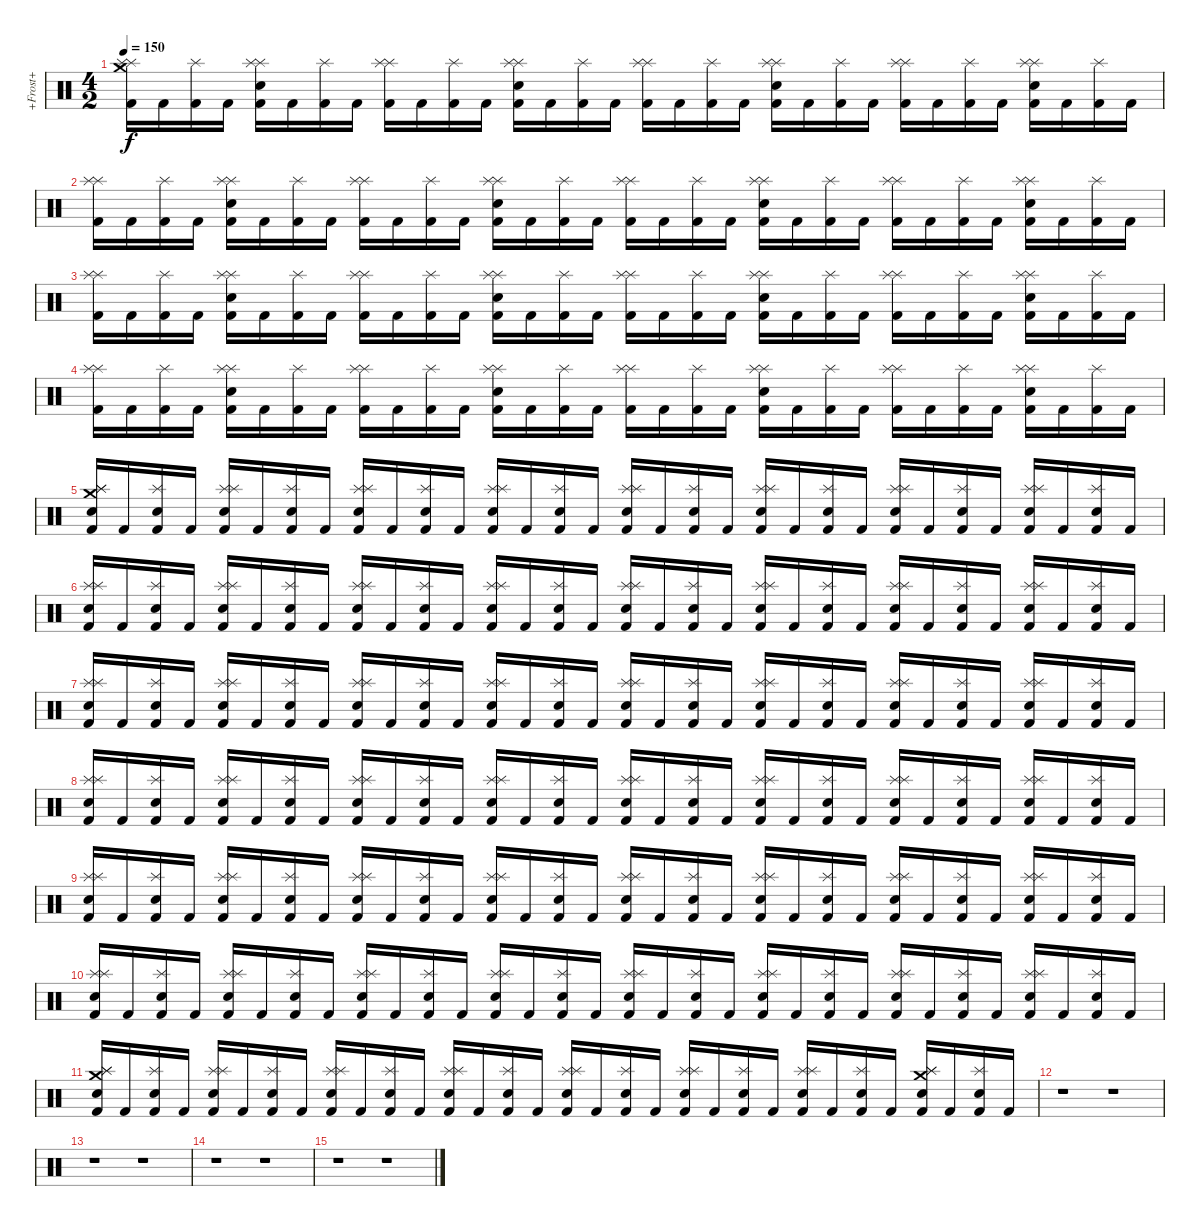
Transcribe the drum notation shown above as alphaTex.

\track ("+Frost+" "+Frost+") {instrument percussion}
\staff {score}
\articulation defaults
\ts (4 2)
\tempo 150
\clef neutral
\ks c
("Kick (hit) 2" "Splash (hit)" "Splash (hit)" "Crash medium (hit)").16{dy f} "Kick (hit) 2".16 ("Kick (hit) 2" "Splash (hit)").16 "Kick (hit) 2".16 ("Kick (hit) 2" "Splash (hit)" "Splash (hit)" "Electric Snare (hit)").16 "Kick (hit) 2".16 ("Kick (hit) 2" "Splash (hit)").16 "Kick (hit) 2".16 ("Kick (hit) 2" "Splash (hit)" "Splash (hit)").16 "Kick (hit) 2".16 ("Kick (hit) 2" "Splash (hit)").16 "Kick (hit) 2".16 ("Kick (hit) 2" "Splash (hit)" "Splash (hit)" "Electric Snare (hit)").16 "Kick (hit) 2".16 ("Kick (hit) 2" "Splash (hit)").16 "Kick (hit) 2".16 ("Kick (hit) 2" "Splash (hit)" "Splash (hit)").16 "Kick (hit) 2".16 ("Kick (hit) 2" "Splash (hit)").16 "Kick (hit) 2".16 ("Kick (hit) 2" "Splash (hit)" "Splash (hit)" "Electric Snare (hit)").16 "Kick (hit) 2".16 ("Kick (hit) 2" "Splash (hit)").16 "Kick (hit) 2".16 ("Kick (hit) 2" "Splash (hit)" "Splash (hit)").16 "Kick (hit) 2".16 ("Kick (hit) 2" "Splash (hit)").16 "Kick (hit) 2".16 ("Kick (hit) 2" "Splash (hit)" "Splash (hit)" "Electric Snare (hit)").16 "Kick (hit) 2".16 ("Kick (hit) 2" "Splash (hit)").16 "Kick (hit) 2".16 |
("Kick (hit) 2" "Splash (hit)" "Splash (hit)").16 "Kick (hit) 2".16 ("Kick (hit) 2" "Splash (hit)").16 "Kick (hit) 2".16 ("Kick (hit) 2" "Splash (hit)" "Splash (hit)" "Electric Snare (hit)").16 "Kick (hit) 2".16 ("Kick (hit) 2" "Splash (hit)").16 "Kick (hit) 2".16 ("Kick (hit) 2" "Splash (hit)" "Splash (hit)").16 "Kick (hit) 2".16 ("Kick (hit) 2" "Splash (hit)").16 "Kick (hit) 2".16 ("Kick (hit) 2" "Splash (hit)" "Splash (hit)" "Electric Snare (hit)").16 "Kick (hit) 2".16 ("Kick (hit) 2" "Splash (hit)").16 "Kick (hit) 2".16 ("Kick (hit) 2" "Splash (hit)" "Splash (hit)").16 "Kick (hit) 2".16 ("Kick (hit) 2" "Splash (hit)").16 "Kick (hit) 2".16 ("Kick (hit) 2" "Splash (hit)" "Splash (hit)" "Electric Snare (hit)").16 "Kick (hit) 2".16 ("Kick (hit) 2" "Splash (hit)").16 "Kick (hit) 2".16 ("Kick (hit) 2" "Splash (hit)" "Splash (hit)").16 "Kick (hit) 2".16 ("Kick (hit) 2" "Splash (hit)").16 "Kick (hit) 2".16 ("Kick (hit) 2" "Splash (hit)" "Splash (hit)" "Electric Snare (hit)").16 "Kick (hit) 2".16 ("Kick (hit) 2" "Splash (hit)").16 "Kick (hit) 2".16 |
("Kick (hit) 2" "Splash (hit)" "Splash (hit)").16 "Kick (hit) 2".16 ("Kick (hit) 2" "Splash (hit)").16 "Kick (hit) 2".16 ("Kick (hit) 2" "Splash (hit)" "Splash (hit)" "Electric Snare (hit)").16 "Kick (hit) 2".16 ("Kick (hit) 2" "Splash (hit)").16 "Kick (hit) 2".16 ("Kick (hit) 2" "Splash (hit)" "Splash (hit)").16 "Kick (hit) 2".16 ("Kick (hit) 2" "Splash (hit)").16 "Kick (hit) 2".16 ("Kick (hit) 2" "Splash (hit)" "Splash (hit)" "Electric Snare (hit)").16 "Kick (hit) 2".16 ("Kick (hit) 2" "Splash (hit)").16 "Kick (hit) 2".16 ("Kick (hit) 2" "Splash (hit)" "Splash (hit)").16 "Kick (hit) 2".16 ("Kick (hit) 2" "Splash (hit)").16 "Kick (hit) 2".16 ("Kick (hit) 2" "Splash (hit)" "Splash (hit)" "Electric Snare (hit)").16 "Kick (hit) 2".16 ("Kick (hit) 2" "Splash (hit)").16 "Kick (hit) 2".16 ("Kick (hit) 2" "Splash (hit)" "Splash (hit)").16 "Kick (hit) 2".16 ("Kick (hit) 2" "Splash (hit)").16 "Kick (hit) 2".16 ("Kick (hit) 2" "Splash (hit)" "Splash (hit)" "Electric Snare (hit)").16 "Kick (hit) 2".16 ("Kick (hit) 2" "Splash (hit)").16 "Kick (hit) 2".16 |
("Kick (hit) 2" "Splash (hit)" "Splash (hit)").16 "Kick (hit) 2".16 ("Kick (hit) 2" "Splash (hit)").16 "Kick (hit) 2".16 ("Kick (hit) 2" "Splash (hit)" "Splash (hit)" "Electric Snare (hit)").16 "Kick (hit) 2".16 ("Kick (hit) 2" "Splash (hit)").16 "Kick (hit) 2".16 ("Kick (hit) 2" "Splash (hit)" "Splash (hit)").16 "Kick (hit) 2".16 ("Kick (hit) 2" "Splash (hit)").16 "Kick (hit) 2".16 ("Kick (hit) 2" "Splash (hit)" "Splash (hit)" "Electric Snare (hit)").16 "Kick (hit) 2".16 ("Kick (hit) 2" "Splash (hit)").16 "Kick (hit) 2".16 ("Kick (hit) 2" "Splash (hit)" "Splash (hit)").16 "Kick (hit) 2".16 ("Kick (hit) 2" "Splash (hit)").16 "Kick (hit) 2".16 ("Kick (hit) 2" "Splash (hit)" "Splash (hit)" "Electric Snare (hit)").16 "Kick (hit) 2".16 ("Kick (hit) 2" "Splash (hit)").16 "Kick (hit) 2".16 ("Kick (hit) 2" "Splash (hit)" "Splash (hit)").16 "Kick (hit) 2".16 ("Kick (hit) 2" "Splash (hit)").16 "Kick (hit) 2".16 ("Kick (hit) 2" "Splash (hit)" "Splash (hit)" "Electric Snare (hit)").16 "Kick (hit) 2".16 ("Kick (hit) 2" "Splash (hit)").16 "Kick (hit) 2".16 |
("Kick (hit) 2" "Splash (hit)" "Splash (hit)" "Electric Snare (hit)" "Crash medium (hit)").16 "Kick (hit) 2".16 ("Kick (hit) 2" "Splash (hit)" "Electric Snare (hit)").16 "Kick (hit) 2".16 ("Kick (hit) 2" "Splash (hit)" "Splash (hit)" "Electric Snare (hit)").16 "Kick (hit) 2".16 ("Kick (hit) 2" "Splash (hit)" "Electric Snare (hit)").16 "Kick (hit) 2".16 ("Kick (hit) 2" "Splash (hit)" "Splash (hit)" "Electric Snare (hit)").16 "Kick (hit) 2".16 ("Kick (hit) 2" "Splash (hit)" "Electric Snare (hit)").16 "Kick (hit) 2".16 ("Kick (hit) 2" "Splash (hit)" "Splash (hit)" "Electric Snare (hit)").16 "Kick (hit) 2".16 ("Kick (hit) 2" "Splash (hit)" "Electric Snare (hit)").16 "Kick (hit) 2".16 ("Kick (hit) 2" "Splash (hit)" "Splash (hit)" "Electric Snare (hit)").16 "Kick (hit) 2".16 ("Kick (hit) 2" "Splash (hit)" "Electric Snare (hit)").16 "Kick (hit) 2".16 ("Kick (hit) 2" "Splash (hit)" "Splash (hit)" "Electric Snare (hit)").16 "Kick (hit) 2".16 ("Kick (hit) 2" "Splash (hit)" "Electric Snare (hit)").16 "Kick (hit) 2".16 ("Kick (hit) 2" "Splash (hit)" "Splash (hit)" "Electric Snare (hit)").16 "Kick (hit) 2".16 ("Kick (hit) 2" "Splash (hit)" "Electric Snare (hit)").16 "Kick (hit) 2".16 ("Kick (hit) 2" "Splash (hit)" "Splash (hit)" "Electric Snare (hit)").16 "Kick (hit) 2".16 ("Kick (hit) 2" "Splash (hit)" "Electric Snare (hit)").16 "Kick (hit) 2".16 |
("Kick (hit) 2" "Splash (hit)" "Splash (hit)" "Electric Snare (hit)").16 "Kick (hit) 2".16 ("Kick (hit) 2" "Splash (hit)" "Electric Snare (hit)").16 "Kick (hit) 2".16 ("Kick (hit) 2" "Splash (hit)" "Splash (hit)" "Electric Snare (hit)").16 "Kick (hit) 2".16 ("Kick (hit) 2" "Splash (hit)" "Electric Snare (hit)").16 "Kick (hit) 2".16 ("Kick (hit) 2" "Splash (hit)" "Splash (hit)" "Electric Snare (hit)").16 "Kick (hit) 2".16 ("Kick (hit) 2" "Splash (hit)" "Electric Snare (hit)").16 "Kick (hit) 2".16 ("Kick (hit) 2" "Splash (hit)" "Splash (hit)" "Electric Snare (hit)").16 "Kick (hit) 2".16 ("Kick (hit) 2" "Splash (hit)" "Electric Snare (hit)").16 "Kick (hit) 2".16 ("Kick (hit) 2" "Splash (hit)" "Splash (hit)" "Electric Snare (hit)").16 "Kick (hit) 2".16 ("Kick (hit) 2" "Splash (hit)" "Electric Snare (hit)").16 "Kick (hit) 2".16 ("Kick (hit) 2" "Splash (hit)" "Splash (hit)" "Electric Snare (hit)").16 "Kick (hit) 2".16 ("Kick (hit) 2" "Splash (hit)" "Electric Snare (hit)").16 "Kick (hit) 2".16 ("Kick (hit) 2" "Splash (hit)" "Splash (hit)" "Electric Snare (hit)").16 "Kick (hit) 2".16 ("Kick (hit) 2" "Splash (hit)" "Electric Snare (hit)").16 "Kick (hit) 2".16 ("Kick (hit) 2" "Splash (hit)" "Splash (hit)" "Electric Snare (hit)").16 "Kick (hit) 2".16 ("Kick (hit) 2" "Splash (hit)" "Electric Snare (hit)").16 "Kick (hit) 2".16 |
("Kick (hit) 2" "Splash (hit)" "Splash (hit)" "Electric Snare (hit)").16 "Kick (hit) 2".16 ("Kick (hit) 2" "Splash (hit)" "Electric Snare (hit)").16 "Kick (hit) 2".16 ("Kick (hit) 2" "Splash (hit)" "Splash (hit)" "Electric Snare (hit)").16 "Kick (hit) 2".16 ("Kick (hit) 2" "Splash (hit)" "Electric Snare (hit)").16 "Kick (hit) 2".16 ("Kick (hit) 2" "Splash (hit)" "Splash (hit)" "Electric Snare (hit)").16 "Kick (hit) 2".16 ("Kick (hit) 2" "Splash (hit)" "Electric Snare (hit)").16 "Kick (hit) 2".16 ("Kick (hit) 2" "Splash (hit)" "Splash (hit)" "Electric Snare (hit)").16 "Kick (hit) 2".16 ("Kick (hit) 2" "Splash (hit)" "Electric Snare (hit)").16 "Kick (hit) 2".16 ("Kick (hit) 2" "Splash (hit)" "Splash (hit)" "Electric Snare (hit)").16 "Kick (hit) 2".16 ("Kick (hit) 2" "Splash (hit)" "Electric Snare (hit)").16 "Kick (hit) 2".16 ("Kick (hit) 2" "Splash (hit)" "Splash (hit)" "Electric Snare (hit)").16 "Kick (hit) 2".16 ("Kick (hit) 2" "Splash (hit)" "Electric Snare (hit)").16 "Kick (hit) 2".16 ("Kick (hit) 2" "Splash (hit)" "Splash (hit)" "Electric Snare (hit)").16 "Kick (hit) 2".16 ("Kick (hit) 2" "Splash (hit)" "Electric Snare (hit)").16 "Kick (hit) 2".16 ("Kick (hit) 2" "Splash (hit)" "Splash (hit)" "Electric Snare (hit)").16 "Kick (hit) 2".16 ("Kick (hit) 2" "Splash (hit)" "Electric Snare (hit)").16 "Kick (hit) 2".16 |
("Kick (hit) 2" "Splash (hit)" "Splash (hit)" "Electric Snare (hit)").16 "Kick (hit) 2".16 ("Kick (hit) 2" "Splash (hit)" "Electric Snare (hit)").16 "Kick (hit) 2".16 ("Kick (hit) 2" "Splash (hit)" "Splash (hit)" "Electric Snare (hit)").16 "Kick (hit) 2".16 ("Kick (hit) 2" "Splash (hit)" "Electric Snare (hit)").16 "Kick (hit) 2".16 ("Kick (hit) 2" "Splash (hit)" "Splash (hit)" "Electric Snare (hit)").16 "Kick (hit) 2".16 ("Kick (hit) 2" "Splash (hit)" "Electric Snare (hit)").16 "Kick (hit) 2".16 ("Kick (hit) 2" "Splash (hit)" "Splash (hit)" "Electric Snare (hit)").16 "Kick (hit) 2".16 ("Kick (hit) 2" "Splash (hit)" "Electric Snare (hit)").16 "Kick (hit) 2".16 ("Kick (hit) 2" "Splash (hit)" "Splash (hit)" "Electric Snare (hit)").16 "Kick (hit) 2".16 ("Kick (hit) 2" "Splash (hit)" "Electric Snare (hit)").16 "Kick (hit) 2".16 ("Kick (hit) 2" "Splash (hit)" "Splash (hit)" "Electric Snare (hit)").16 "Kick (hit) 2".16 ("Kick (hit) 2" "Splash (hit)" "Electric Snare (hit)").16 "Kick (hit) 2".16 ("Kick (hit) 2" "Splash (hit)" "Splash (hit)" "Electric Snare (hit)").16 "Kick (hit) 2".16 ("Kick (hit) 2" "Splash (hit)" "Electric Snare (hit)").16 "Kick (hit) 2".16 ("Kick (hit) 2" "Splash (hit)" "Splash (hit)" "Electric Snare (hit)").16 "Kick (hit) 2".16 ("Kick (hit) 2" "Splash (hit)" "Electric Snare (hit)").16 "Kick (hit) 2".16 |
("Kick (hit) 2" "Splash (hit)" "Splash (hit)" "Electric Snare (hit)").16 "Kick (hit) 2".16 ("Kick (hit) 2" "Splash (hit)" "Electric Snare (hit)").16 "Kick (hit) 2".16 ("Kick (hit) 2" "Splash (hit)" "Splash (hit)" "Electric Snare (hit)").16 "Kick (hit) 2".16 ("Kick (hit) 2" "Splash (hit)" "Electric Snare (hit)").16 "Kick (hit) 2".16 ("Kick (hit) 2" "Splash (hit)" "Splash (hit)" "Electric Snare (hit)").16 "Kick (hit) 2".16 ("Kick (hit) 2" "Splash (hit)" "Electric Snare (hit)").16 "Kick (hit) 2".16 ("Kick (hit) 2" "Splash (hit)" "Splash (hit)" "Electric Snare (hit)").16 "Kick (hit) 2".16 ("Kick (hit) 2" "Splash (hit)" "Electric Snare (hit)").16 "Kick (hit) 2".16 ("Kick (hit) 2" "Splash (hit)" "Splash (hit)" "Electric Snare (hit)").16 "Kick (hit) 2".16 ("Kick (hit) 2" "Splash (hit)" "Electric Snare (hit)").16 "Kick (hit) 2".16 ("Kick (hit) 2" "Splash (hit)" "Splash (hit)" "Electric Snare (hit)").16 "Kick (hit) 2".16 ("Kick (hit) 2" "Splash (hit)" "Electric Snare (hit)").16 "Kick (hit) 2".16 ("Kick (hit) 2" "Splash (hit)" "Splash (hit)" "Electric Snare (hit)").16 "Kick (hit) 2".16 ("Kick (hit) 2" "Splash (hit)" "Electric Snare (hit)").16 "Kick (hit) 2".16 ("Kick (hit) 2" "Splash (hit)" "Splash (hit)" "Electric Snare (hit)").16 "Kick (hit) 2".16 ("Kick (hit) 2" "Splash (hit)" "Electric Snare (hit)").16 "Kick (hit) 2".16 |
("Kick (hit) 2" "Splash (hit)" "Splash (hit)" "Electric Snare (hit)").16 "Kick (hit) 2".16 ("Kick (hit) 2" "Splash (hit)" "Electric Snare (hit)").16 "Kick (hit) 2".16 ("Kick (hit) 2" "Splash (hit)" "Splash (hit)" "Electric Snare (hit)").16 "Kick (hit) 2".16 ("Kick (hit) 2" "Splash (hit)" "Electric Snare (hit)").16 "Kick (hit) 2".16 ("Kick (hit) 2" "Splash (hit)" "Splash (hit)" "Electric Snare (hit)").16 "Kick (hit) 2".16 ("Kick (hit) 2" "Splash (hit)" "Electric Snare (hit)").16 "Kick (hit) 2".16 ("Kick (hit) 2" "Splash (hit)" "Splash (hit)" "Electric Snare (hit)").16 "Kick (hit) 2".16 ("Kick (hit) 2" "Splash (hit)" "Electric Snare (hit)").16 "Kick (hit) 2".16 ("Kick (hit) 2" "Splash (hit)" "Splash (hit)" "Electric Snare (hit)").16 "Kick (hit) 2".16 ("Kick (hit) 2" "Splash (hit)" "Electric Snare (hit)").16 "Kick (hit) 2".16 ("Kick (hit) 2" "Splash (hit)" "Splash (hit)" "Electric Snare (hit)").16 "Kick (hit) 2".16 ("Kick (hit) 2" "Splash (hit)" "Electric Snare (hit)").16 "Kick (hit) 2".16 ("Kick (hit) 2" "Splash (hit)" "Splash (hit)" "Electric Snare (hit)").16 "Kick (hit) 2".16 ("Kick (hit) 2" "Splash (hit)" "Electric Snare (hit)").16 "Kick (hit) 2".16 ("Kick (hit) 2" "Splash (hit)" "Splash (hit)" "Electric Snare (hit)").16 "Kick (hit) 2".16 ("Kick (hit) 2" "Splash (hit)" "Electric Snare (hit)").16 "Kick (hit) 2".16 |
("Kick (hit) 2" "Splash (hit)" "Splash (hit)" "Electric Snare (hit)" "Crash medium (hit)").16 "Kick (hit) 2".16 ("Kick (hit) 2" "Splash (hit)" "Electric Snare (hit)").16 "Kick (hit) 2".16 ("Kick (hit) 2" "Splash (hit)" "Splash (hit)" "Electric Snare (hit)").16 "Kick (hit) 2".16 ("Kick (hit) 2" "Splash (hit)" "Electric Snare (hit)").16 "Kick (hit) 2".16 ("Kick (hit) 2" "Splash (hit)" "Splash (hit)" "Electric Snare (hit)").16 "Kick (hit) 2".16 ("Kick (hit) 2" "Splash (hit)" "Electric Snare (hit)").16 "Kick (hit) 2".16 ("Kick (hit) 2" "Splash (hit)" "Splash (hit)" "Electric Snare (hit)").16 "Kick (hit) 2".16 ("Kick (hit) 2" "Splash (hit)" "Electric Snare (hit)").16 "Kick (hit) 2".16 ("Kick (hit) 2" "Splash (hit)" "Splash (hit)" "Electric Snare (hit)").16 "Kick (hit) 2".16 ("Kick (hit) 2" "Splash (hit)" "Electric Snare (hit)").16 "Kick (hit) 2".16 ("Kick (hit) 2" "Splash (hit)" "Splash (hit)" "Electric Snare (hit)").16 "Kick (hit) 2".16 ("Kick (hit) 2" "Splash (hit)" "Electric Snare (hit)").16 "Kick (hit) 2".16 ("Kick (hit) 2" "Splash (hit)" "Splash (hit)" "Electric Snare (hit)").16 "Kick (hit) 2".16 ("Kick (hit) 2" "Splash (hit)" "Electric Snare (hit)").16 "Kick (hit) 2".16 ("Kick (hit) 2" "Splash (hit)" "Splash (hit)" "Electric Snare (hit)" "Crash medium (hit)").16 "Kick (hit) 2".16 ("Kick (hit) 2" "Splash (hit)" "Electric Snare (hit)").16 "Kick (hit) 2".16 |
r.1 r.1 |
r.1 r.1 |
r.1 r.1 |
r.1 r.1
